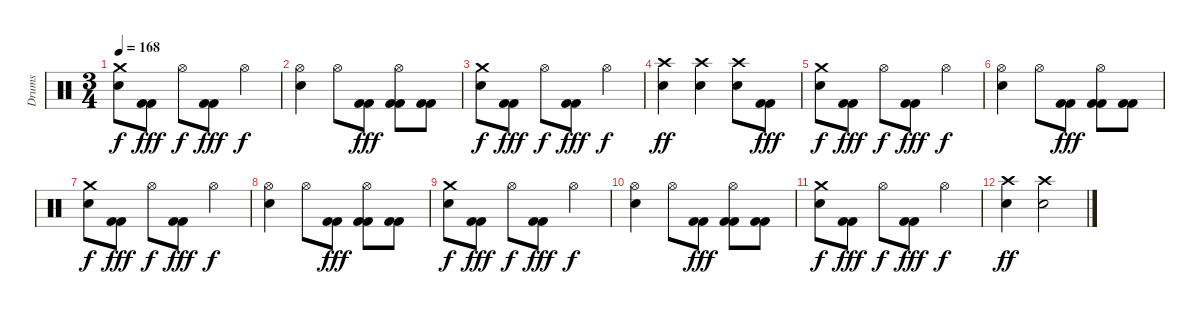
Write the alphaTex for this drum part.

\track ("Drums" "Drums") {instrument percussion}
\staff {score}
\articulation defaults
\ts (3 4)
\tempo 168
\clef neutral
\ks c
("Crash medium (hit)" "Electric Snare (hit)").8{dy f} ("Kick (hit) 2" "Kick (hit) 2").8{dy fff} "Hi-Hat (open)".8{dy f} ("Kick (hit) 2" "Kick (hit) 2").8{dy fff} "Hi-Hat (open)".4{dy f} |
("Electric Snare (hit)" "Hi-Hat (open)").4 "Hi-Hat (open)".8 ("Kick (hit) 2" "Kick (hit) 2").8{dy fff} ("Hi-Hat (open)" "Kick (hit) 2" "Kick (hit) 2").8 ("Kick (hit) 2" "Kick (hit) 2").8 |
("Crash medium (hit)" "Electric Snare (hit)").8{dy f} ("Kick (hit) 2" "Kick (hit) 2").8{dy fff} "Hi-Hat (open)".8{dy f} ("Kick (hit) 2" "Kick (hit) 2").8{dy fff} "Hi-Hat (open)".4{dy f} |
("Electric Snare (hit)" "Crash high (hit)").4{dy ff} ("Electric Snare (hit)" "Crash high (hit)").4 ("Electric Snare (hit)" "Crash high (hit)").8 ("Kick (hit) 2" "Kick (hit) 2").8{dy fff} |
("Crash medium (hit)" "Electric Snare (hit)").8{dy f} ("Kick (hit) 2" "Kick (hit) 2").8{dy fff} "Hi-Hat (open)".8{dy f} ("Kick (hit) 2" "Kick (hit) 2").8{dy fff} "Hi-Hat (open)".4{dy f} |
("Electric Snare (hit)" "Hi-Hat (open)").4 "Hi-Hat (open)".8 ("Kick (hit) 2" "Kick (hit) 2").8{dy fff} ("Hi-Hat (open)" "Kick (hit) 2" "Kick (hit) 2").8 ("Kick (hit) 2" "Kick (hit) 2").8 |
("Crash medium (hit)" "Electric Snare (hit)").8{dy f} ("Kick (hit) 2" "Kick (hit) 2").8{dy fff} "Hi-Hat (open)".8{dy f} ("Kick (hit) 2" "Kick (hit) 2").8{dy fff} "Hi-Hat (open)".4{dy f} |
("Electric Snare (hit)" "Hi-Hat (open)").4 "Hi-Hat (open)".8 ("Kick (hit) 2" "Kick (hit) 2").8{dy fff} ("Hi-Hat (open)" "Kick (hit) 2" "Kick (hit) 2").8 ("Kick (hit) 2" "Kick (hit) 2").8 |
("Crash medium (hit)" "Electric Snare (hit)").8{dy f} ("Kick (hit) 2" "Kick (hit) 2").8{dy fff} "Hi-Hat (open)".8{dy f} ("Kick (hit) 2" "Kick (hit) 2").8{dy fff} "Hi-Hat (open)".4{dy f} |
("Electric Snare (hit)" "Hi-Hat (open)").4 "Hi-Hat (open)".8 ("Kick (hit) 2" "Kick (hit) 2").8{dy fff} ("Hi-Hat (open)" "Kick (hit) 2" "Kick (hit) 2").8 ("Kick (hit) 2" "Kick (hit) 2").8 |
("Crash medium (hit)" "Electric Snare (hit)").8{dy f} ("Kick (hit) 2" "Kick (hit) 2").8{dy fff} "Hi-Hat (open)".8{dy f} ("Kick (hit) 2" "Kick (hit) 2").8{dy fff} "Hi-Hat (open)".4{dy f} |
("Electric Snare (hit)" "Crash high (hit)").4{dy ff} ("Electric Snare (hit)" "Crash high (hit)").2
